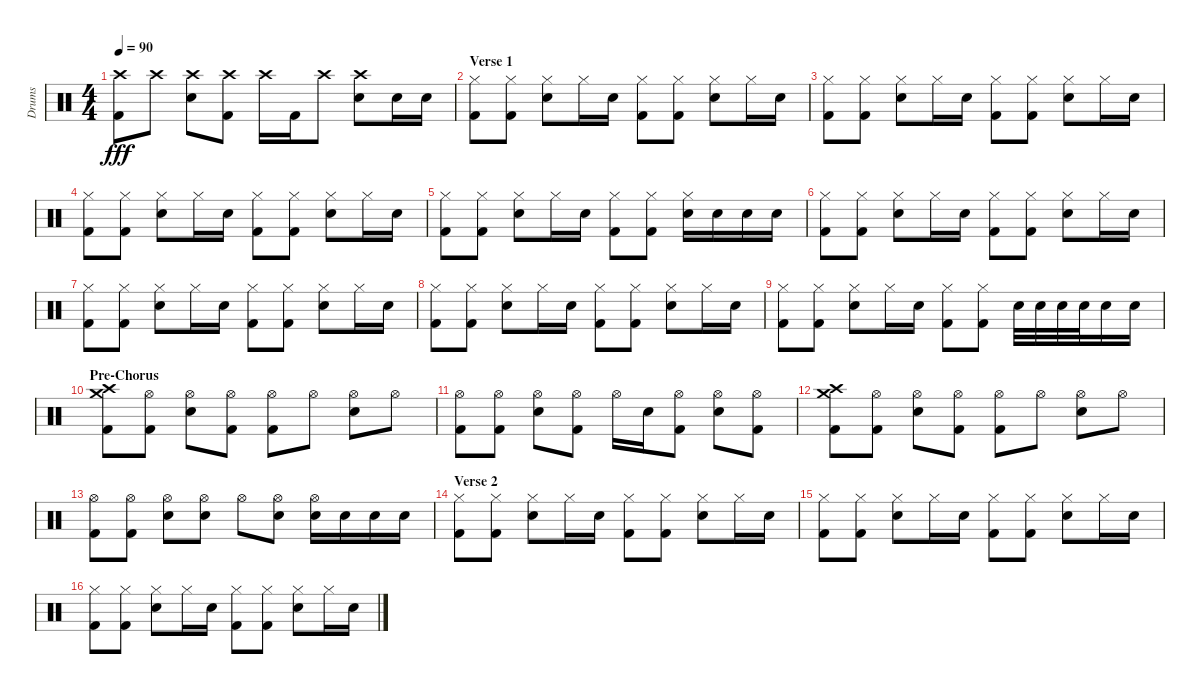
\track ("Drums" "Drums") {instrument percussion}
\staff {score}
\articulation defaults
\ts (4 4)
\tempo 90
\clef neutral
\ks c
("Crash high (hit)" "Kick (hit) 2").8{dy fff} "Crash high (hit)".8 ("Crash high (hit)" "Electric Snare (hit)").8 ("Crash high (hit)" "Kick (hit) 2").8 "Crash high (hit)".16 "Kick (hit) 2".16 "Crash high (hit)".8 ("Crash high (hit)" "Electric Snare (hit)").8 "Electric Snare (hit)".16 "Electric Snare (hit)".16 |
\section ("" "Verse 1")
("Hi-Hat (closed)" "Kick (hit) 2").8 ("Hi-Hat (closed)" "Kick (hit) 2").8 ("Hi-Hat (closed)" "Electric Snare (hit)").8 "Hi-Hat (closed)".16 "Electric Snare (hit)".16 ("Hi-Hat (closed)" "Kick (hit) 2").8 ("Hi-Hat (closed)" "Kick (hit) 2").8 ("Hi-Hat (closed)" "Electric Snare (hit)").8 "Hi-Hat (closed)".16 "Electric Snare (hit)".16 |
("Hi-Hat (closed)" "Kick (hit) 2").8 ("Hi-Hat (closed)" "Kick (hit) 2").8 ("Hi-Hat (closed)" "Electric Snare (hit)").8 "Hi-Hat (closed)".16 "Electric Snare (hit)".16 ("Hi-Hat (closed)" "Kick (hit) 2").8 ("Hi-Hat (closed)" "Kick (hit) 2").8 ("Hi-Hat (closed)" "Electric Snare (hit)").8 "Hi-Hat (closed)".16 "Electric Snare (hit)".16 |
("Hi-Hat (closed)" "Kick (hit) 2").8 ("Hi-Hat (closed)" "Kick (hit) 2").8 ("Hi-Hat (closed)" "Electric Snare (hit)").8 "Hi-Hat (closed)".16 "Electric Snare (hit)".16 ("Hi-Hat (closed)" "Kick (hit) 2").8 ("Hi-Hat (closed)" "Kick (hit) 2").8 ("Hi-Hat (closed)" "Electric Snare (hit)").8 "Hi-Hat (closed)".16 "Electric Snare (hit)".16 |
("Hi-Hat (closed)" "Kick (hit) 2").8 ("Hi-Hat (closed)" "Kick (hit) 2").8 ("Hi-Hat (closed)" "Electric Snare (hit)").8 "Hi-Hat (closed)".16 "Electric Snare (hit)".16 ("Hi-Hat (closed)" "Kick (hit) 2").8 ("Hi-Hat (closed)" "Kick (hit) 2").8 ("Hi-Hat (closed)" "Electric Snare (hit)").16 "Electric Snare (hit)".16 "Electric Snare (hit)".16 "Electric Snare (hit)".16 |
("Hi-Hat (closed)" "Kick (hit) 2").8 ("Hi-Hat (closed)" "Kick (hit) 2").8 ("Hi-Hat (closed)" "Electric Snare (hit)").8 "Hi-Hat (closed)".16 "Electric Snare (hit)".16 ("Hi-Hat (closed)" "Kick (hit) 2").8 ("Hi-Hat (closed)" "Kick (hit) 2").8 ("Hi-Hat (closed)" "Electric Snare (hit)").8 "Hi-Hat (closed)".16 "Electric Snare (hit)".16 |
("Hi-Hat (closed)" "Kick (hit) 2").8 ("Hi-Hat (closed)" "Kick (hit) 2").8 ("Hi-Hat (closed)" "Electric Snare (hit)").8 "Hi-Hat (closed)".16 "Electric Snare (hit)".16 ("Hi-Hat (closed)" "Kick (hit) 2").8 ("Hi-Hat (closed)" "Kick (hit) 2").8 ("Hi-Hat (closed)" "Electric Snare (hit)").8 "Hi-Hat (closed)".16 "Electric Snare (hit)".16 |
("Hi-Hat (closed)" "Kick (hit) 2").8 ("Hi-Hat (closed)" "Kick (hit) 2").8 ("Hi-Hat (closed)" "Electric Snare (hit)").8 "Hi-Hat (closed)".16 "Electric Snare (hit)".16 ("Hi-Hat (closed)" "Kick (hit) 2").8 ("Hi-Hat (closed)" "Kick (hit) 2").8 ("Hi-Hat (closed)" "Electric Snare (hit)").8 "Hi-Hat (closed)".16 "Electric Snare (hit)".16 |
("Hi-Hat (closed)" "Kick (hit) 2").8 ("Hi-Hat (closed)" "Kick (hit) 2").8 ("Hi-Hat (closed)" "Electric Snare (hit)").8 "Hi-Hat (closed)".16 "Electric Snare (hit)".16 ("Hi-Hat (closed)" "Kick (hit) 2").8 ("Hi-Hat (closed)" "Kick (hit) 2").8 "Electric Snare (hit)".32 "Electric Snare (hit)".32 "Electric Snare (hit)".32 "Electric Snare (hit)".32 "Electric Snare (hit)".16 "Electric Snare (hit)".16 |
\section ("" "Pre-Chorus")
("Crash high (hit)" "Crash medium (hit)" "Kick (hit) 2").8 ("Hi-Hat (open)" "Kick (hit) 2").8 ("Hi-Hat (open)" "Electric Snare (hit)").8 ("Hi-Hat (open)" "Kick (hit) 2").8 ("Hi-Hat (open)" "Kick (hit) 2").8 "Hi-Hat (open)".8 ("Hi-Hat (open)" "Electric Snare (hit)").8 "Hi-Hat (open)".8 |
("Hi-Hat (open)" "Kick (hit) 2").8 ("Hi-Hat (open)" "Kick (hit) 2").8 ("Hi-Hat (open)" "Electric Snare (hit)").8 ("Hi-Hat (open)" "Kick (hit) 2").8 "Hi-Hat (open)".16 "Electric Snare (hit)".16 ("Hi-Hat (open)" "Kick (hit) 2").8 ("Hi-Hat (open)" "Electric Snare (hit)").8 ("Hi-Hat (open)" "Kick (hit) 2").8 |
("Crash high (hit)" "Crash medium (hit)" "Kick (hit) 2").8 ("Hi-Hat (open)" "Kick (hit) 2").8 ("Hi-Hat (open)" "Electric Snare (hit)").8 ("Hi-Hat (open)" "Kick (hit) 2").8 ("Hi-Hat (open)" "Kick (hit) 2").8 "Hi-Hat (open)".8 ("Hi-Hat (open)" "Electric Snare (hit)").8 "Hi-Hat (open)".8 |
("Hi-Hat (open)" "Kick (hit) 2").8 ("Hi-Hat (open)" "Kick (hit) 2").8 ("Hi-Hat (open)" "Electric Snare (hit)").8 ("Hi-Hat (open)" "Electric Snare (hit)").8 "Hi-Hat (open)".8 ("Hi-Hat (open)" "Electric Snare (hit)").8 ("Hi-Hat (open)" "Electric Snare (hit)").16 "Electric Snare (hit)".16 "Electric Snare (hit)".16 "Electric Snare (hit)".16 |
\section ("" "Verse 2")
("Hi-Hat (closed)" "Kick (hit) 2").8 ("Hi-Hat (closed)" "Kick (hit) 2").8 ("Hi-Hat (closed)" "Electric Snare (hit)").8 "Hi-Hat (closed)".16 "Electric Snare (hit)".16 ("Hi-Hat (closed)" "Kick (hit) 2").8 ("Hi-Hat (closed)" "Kick (hit) 2").8 ("Hi-Hat (closed)" "Electric Snare (hit)").8 "Hi-Hat (closed)".16 "Electric Snare (hit)".16 |
("Hi-Hat (closed)" "Kick (hit) 2").8 ("Hi-Hat (closed)" "Kick (hit) 2").8 ("Hi-Hat (closed)" "Electric Snare (hit)").8 "Hi-Hat (closed)".16 "Electric Snare (hit)".16 ("Hi-Hat (closed)" "Kick (hit) 2").8 ("Hi-Hat (closed)" "Kick (hit) 2").8 ("Hi-Hat (closed)" "Electric Snare (hit)").8 "Hi-Hat (closed)".16 "Electric Snare (hit)".16 |
("Hi-Hat (closed)" "Kick (hit) 2").8 ("Hi-Hat (closed)" "Kick (hit) 2").8 ("Hi-Hat (closed)" "Electric Snare (hit)").8 "Hi-Hat (closed)".16 "Electric Snare (hit)".16 ("Hi-Hat (closed)" "Kick (hit) 2").8 ("Hi-Hat (closed)" "Kick (hit) 2").8 ("Hi-Hat (closed)" "Electric Snare (hit)").8 "Hi-Hat (closed)".16 "Electric Snare (hit)".16
